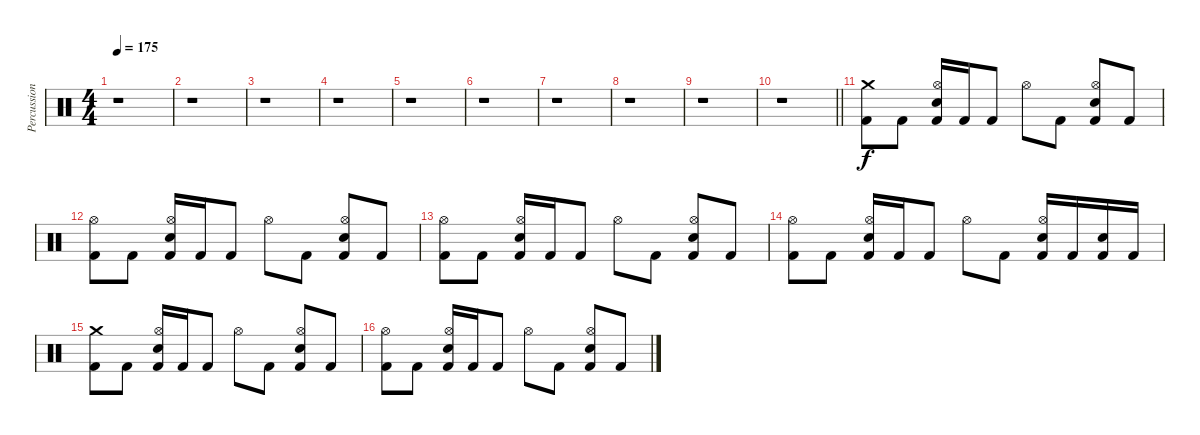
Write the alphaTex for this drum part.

\track ("Percussion" "Percussion") {instrument percussion}
\staff {score}
\articulation defaults
\ts (4 4)
\tempo 175
\clef neutral
\ks c
r.1{dy f} |
r.1 |
r.1 |
r.1 |
r.1 |
r.1 |
r.1 |
r.1 |
r.1 |
\barLineRight lightlight
r.1 |
("Crash medium (hit)" "Kick (hit) 2").8 "Kick (hit) 2".8 ("Kick (hit) 2" "Hi-Hat (open)" "Snare (hit) 2").16 "Kick (hit) 2".16 "Kick (hit) 2".8 "Hi-Hat (open)".8 "Kick (hit) 2".8 ("Kick (hit) 2" "Hi-Hat (open)" "Snare (hit) 2").8 "Kick (hit) 2".8 |
("Hi-Hat (open)" "Kick (hit) 2").8 "Kick (hit) 2".8 ("Kick (hit) 2" "Hi-Hat (open)" "Snare (hit) 2").16 "Kick (hit) 2".16 "Kick (hit) 2".8 "Hi-Hat (open)".8 "Kick (hit) 2".8 ("Kick (hit) 2" "Hi-Hat (open)" "Snare (hit) 2").8 "Kick (hit) 2".8 |
("Hi-Hat (open)" "Kick (hit) 2").8 "Kick (hit) 2".8 ("Kick (hit) 2" "Hi-Hat (open)" "Snare (hit) 2").16 "Kick (hit) 2".16 "Kick (hit) 2".8 "Hi-Hat (open)".8 "Kick (hit) 2".8 ("Kick (hit) 2" "Hi-Hat (open)" "Snare (hit) 2").8 "Kick (hit) 2".8 |
("Hi-Hat (open)" "Kick (hit) 2").8 "Kick (hit) 2".8 ("Kick (hit) 2" "Hi-Hat (open)" "Snare (hit) 2").16 "Kick (hit) 2".16 "Kick (hit) 2".8 "Hi-Hat (open)".8 "Kick (hit) 2".8 ("Kick (hit) 2" "Hi-Hat (open)" "Snare (hit) 2").16 "Kick (hit) 2".16 ("Kick (hit) 2" "Snare (hit) 2").16 "Kick (hit) 2".16 |
("Crash medium (hit)" "Kick (hit) 2").8 "Kick (hit) 2".8 ("Kick (hit) 2" "Hi-Hat (open)" "Snare (hit) 2").16 "Kick (hit) 2".16 "Kick (hit) 2".8 "Hi-Hat (open)".8 "Kick (hit) 2".8 ("Kick (hit) 2" "Hi-Hat (open)" "Snare (hit) 2").8 "Kick (hit) 2".8 |
("Hi-Hat (open)" "Kick (hit) 2").8 "Kick (hit) 2".8 ("Kick (hit) 2" "Hi-Hat (open)" "Snare (hit) 2").16 "Kick (hit) 2".16 "Kick (hit) 2".8 "Hi-Hat (open)".8 "Kick (hit) 2".8 ("Kick (hit) 2" "Hi-Hat (open)" "Snare (hit) 2").8 "Kick (hit) 2".8
